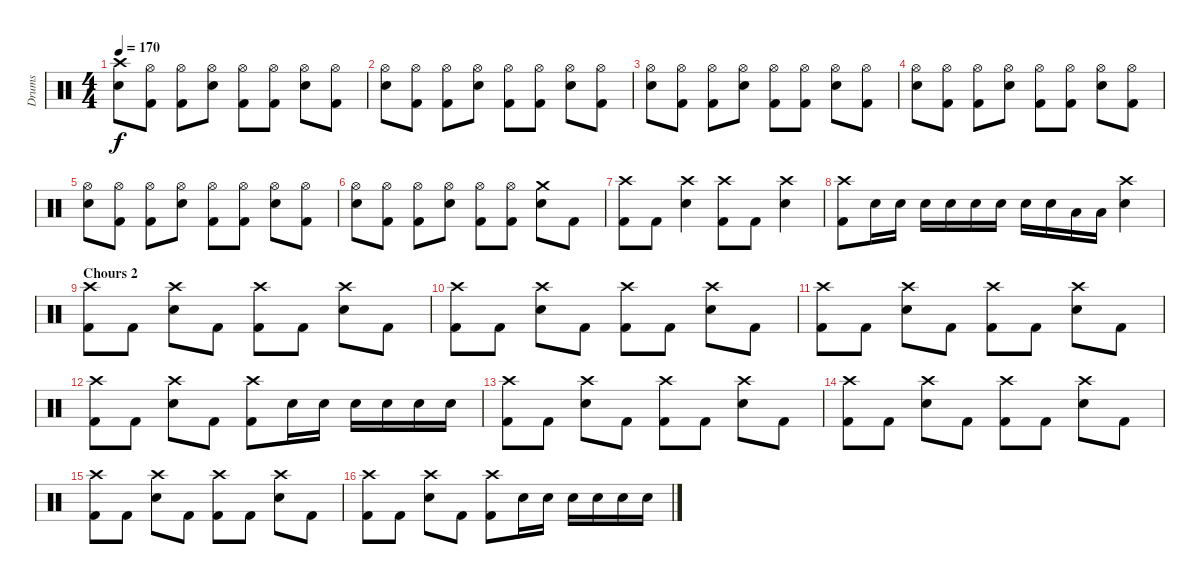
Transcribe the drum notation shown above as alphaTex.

\track ("Drums" "Drums") {instrument percussion}
\staff {score}
\articulation defaults
\ts (4 4)
\tempo 170
\clef neutral
\ks c
("Crash high (hit)" "Snare (hit) 2").8{dy f} ("Hi-Hat (open)" "Kick (hit) 2").8 ("Hi-Hat (open)" "Kick (hit) 2").8 ("Hi-Hat (open)" "Snare (hit) 2").8 ("Hi-Hat (open)" "Kick (hit) 2").8 ("Hi-Hat (open)" "Kick (hit) 2").8 ("Hi-Hat (open)" "Snare (hit) 2").8 ("Hi-Hat (open)" "Kick (hit) 2").8 |
("Hi-Hat (open)" "Snare (hit) 2").8 ("Hi-Hat (open)" "Kick (hit) 2").8 ("Hi-Hat (open)" "Kick (hit) 2").8 ("Hi-Hat (open)" "Snare (hit) 2").8 ("Hi-Hat (open)" "Kick (hit) 2").8 ("Hi-Hat (open)" "Kick (hit) 2").8 ("Hi-Hat (open)" "Snare (hit) 2").8 ("Hi-Hat (open)" "Kick (hit) 2").8 |
("Hi-Hat (open)" "Snare (hit) 2").8 ("Hi-Hat (open)" "Kick (hit) 2").8 ("Hi-Hat (open)" "Kick (hit) 2").8 ("Hi-Hat (open)" "Snare (hit) 2").8 ("Hi-Hat (open)" "Kick (hit) 2").8 ("Hi-Hat (open)" "Kick (hit) 2").8 ("Hi-Hat (open)" "Snare (hit) 2").8 ("Hi-Hat (open)" "Kick (hit) 2").8 |
("Hi-Hat (open)" "Snare (hit) 2").8 ("Hi-Hat (open)" "Kick (hit) 2").8 ("Hi-Hat (open)" "Kick (hit) 2").8 ("Hi-Hat (open)" "Snare (hit) 2").8 ("Hi-Hat (open)" "Kick (hit) 2").8 ("Hi-Hat (open)" "Kick (hit) 2").8 ("Hi-Hat (open)" "Snare (hit) 2").8 ("Hi-Hat (open)" "Kick (hit) 2").8 |
("Hi-Hat (open)" "Snare (hit) 2").8 ("Hi-Hat (open)" "Kick (hit) 2").8 ("Hi-Hat (open)" "Kick (hit) 2").8 ("Hi-Hat (open)" "Snare (hit) 2").8 ("Hi-Hat (open)" "Kick (hit) 2").8 ("Hi-Hat (open)" "Kick (hit) 2").8 ("Hi-Hat (open)" "Snare (hit) 2").8 ("Hi-Hat (open)" "Kick (hit) 2").8 |
("Hi-Hat (open)" "Snare (hit) 2").8 ("Hi-Hat (open)" "Kick (hit) 2").8 ("Hi-Hat (open)" "Kick (hit) 2").8 ("Hi-Hat (open)" "Snare (hit) 2").8 ("Hi-Hat (open)" "Kick (hit) 2").8 ("Hi-Hat (open)" "Kick (hit) 2").8 ("Crash medium (hit)" "Snare (hit) 2").8 "Kick (hit) 2".8 |
("Crash high (hit)" "Kick (hit) 2").8 "Kick (hit) 2".8 ("Crash high (hit)" "Snare (hit) 2").4 ("Crash high (hit)" "Kick (hit) 2").8 "Kick (hit) 2".8 ("Crash high (hit)" "Snare (hit) 2").4 |
("Crash high (hit)" "Kick (hit) 2").8 "Snare (hit) 2".16 "Snare (hit) 2".16 "Snare (hit) 2".16 "Snare (hit) 2".16 "Snare (hit) 2".16 "Snare (hit) 2".16 "Snare (hit) 2".16 "Snare (hit) 2".16 "Low Tom (hit)".16 "Low Tom (hit)".16 ("Crash high (hit)" "Snare (hit) 2").4 |
\section ("" "Chours 2")
("Crash high (hit)" "Kick (hit) 2").8 "Kick (hit) 2".8 ("Crash high (hit)" "Snare (hit) 2").8 "Kick (hit) 2".8 ("Crash high (hit)" "Kick (hit) 2").8 "Kick (hit) 2".8 ("Crash high (hit)" "Snare (hit) 2").8 "Kick (hit) 2".8 |
("Crash high (hit)" "Kick (hit) 2").8 "Kick (hit) 2".8 ("Crash high (hit)" "Snare (hit) 2").8 "Kick (hit) 2".8 ("Crash high (hit)" "Kick (hit) 2").8 "Kick (hit) 2".8 ("Crash high (hit)" "Snare (hit) 2").8 "Kick (hit) 2".8 |
("Crash high (hit)" "Kick (hit) 2").8 "Kick (hit) 2".8 ("Crash high (hit)" "Snare (hit) 2").8 "Kick (hit) 2".8 ("Crash high (hit)" "Kick (hit) 2").8 "Kick (hit) 2".8 ("Crash high (hit)" "Snare (hit) 2").8 "Kick (hit) 2".8 |
("Crash high (hit)" "Kick (hit) 2").8 "Kick (hit) 2".8 ("Crash high (hit)" "Snare (hit) 2").8 "Kick (hit) 2".8 ("Crash high (hit)" "Kick (hit) 2").8 "Snare (hit) 2".16 "Snare (hit) 2".16 "Snare (hit) 2".16 "Snare (hit) 2".16 "Snare (hit) 2".16 "Snare (hit) 2".16 |
("Crash high (hit)" "Kick (hit) 2").8 "Kick (hit) 2".8 ("Crash high (hit)" "Snare (hit) 2").8 "Kick (hit) 2".8 ("Crash high (hit)" "Kick (hit) 2").8 "Kick (hit) 2".8 ("Crash high (hit)" "Snare (hit) 2").8 "Kick (hit) 2".8 |
("Crash high (hit)" "Kick (hit) 2").8 "Kick (hit) 2".8 ("Crash high (hit)" "Snare (hit) 2").8 "Kick (hit) 2".8 ("Crash high (hit)" "Kick (hit) 2").8 "Kick (hit) 2".8 ("Crash high (hit)" "Snare (hit) 2").8 "Kick (hit) 2".8 |
("Crash high (hit)" "Kick (hit) 2").8 "Kick (hit) 2".8 ("Crash high (hit)" "Snare (hit) 2").8 "Kick (hit) 2".8 ("Crash high (hit)" "Kick (hit) 2").8 "Kick (hit) 2".8 ("Crash high (hit)" "Snare (hit) 2").8 "Kick (hit) 2".8 |
("Crash high (hit)" "Kick (hit) 2").8 "Kick (hit) 2".8 ("Crash high (hit)" "Snare (hit) 2").8 "Kick (hit) 2".8 ("Crash high (hit)" "Kick (hit) 2").8 "Snare (hit) 2".16 "Snare (hit) 2".16 "Snare (hit) 2".16 "Snare (hit) 2".16 "Snare (hit) 2".16 "Snare (hit) 2".16
